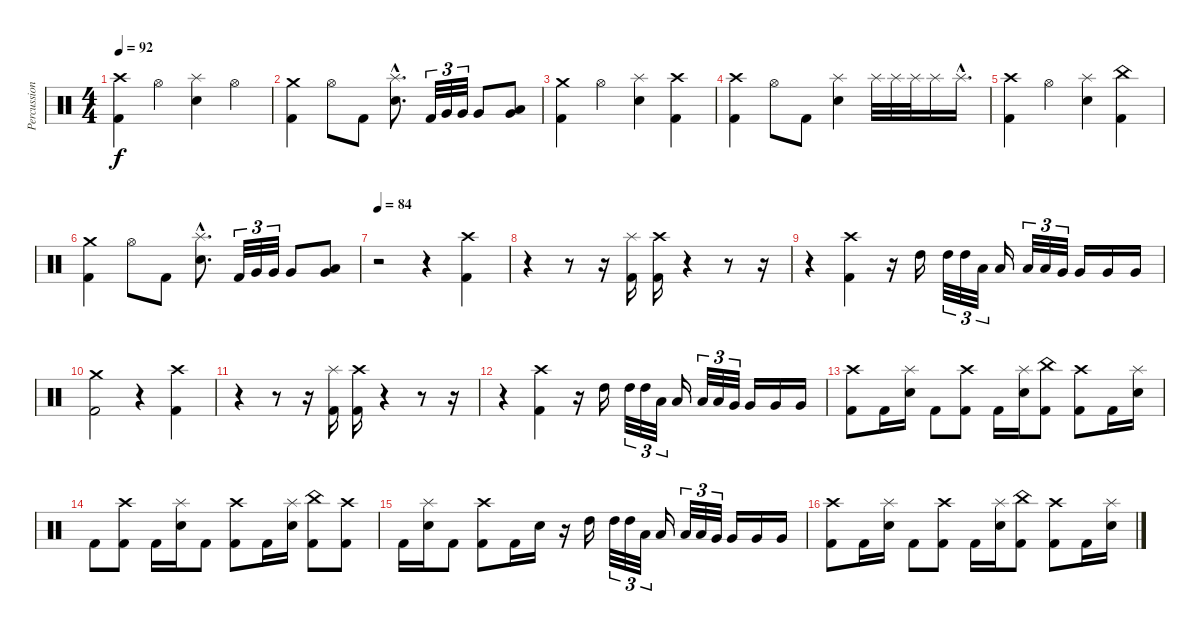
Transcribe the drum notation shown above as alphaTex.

\track ("Percussion" "Percussion") {instrument percussion}
\staff {score}
\articulation defaults
\ts (4 4)
\tempo 92
\clef neutral
\ks c
("Crash high (hit)" "Kick (hit) 2").4{dy f} "Hi-Hat (open)".4 ("Splash (hit)" "Electric Snare (hit)").4 "Hi-Hat (open)".4 |
("Crash medium (hit)" "Kick (hit) 2").4 "Hi-Hat (open)".8 "Kick (hit) 2".8 ("Splash (hit)"{hac} "Electric Snare (hit)"{hac}).8{d} "Kick (hit) 2".32{tu (3 2)} "Very Low Tom (hit)".32{tu (3 2)} "Very Low Tom (hit)".32{tu (3 2)} "Very Low Tom (hit)".8 ("Low Tom (hit)" "Very Low Tom (hit)").8 |
("Crash medium (hit)" "Kick (hit) 2").4 "Hi-Hat (open)".4 ("Splash (hit)" "Electric Snare (hit)").4 ("Kick (hit) 2" "Crash high (hit)").4 |
("Crash high (hit)" "Kick (hit) 2").4 "Hi-Hat (open)".8 "Kick (hit) 2".8 ("Splash (hit)" "Electric Snare (hit)").4 "Splash (hit)".32 "Splash (hit)".32 "Splash (hit)".32 "Splash (hit)".16 "Splash (hit)"{hac}.16{d} |
("Crash high (hit)" "Kick (hit) 2").4 "Hi-Hat (open)".4 ("Splash (hit)" "Electric Snare (hit)").4 ("China (hit)" "Kick (hit) 2").4 |
("Crash medium (hit)" "Kick (hit) 2").4 "Hi-Hat (open)".8 "Kick (hit) 2".8 ("Splash (hit)"{hac} "Electric Snare (hit)"{hac}).8{d} "Kick (hit) 2".32{tu (3 2)} "Very Low Tom (hit)".32{tu (3 2)} "Very Low Tom (hit)".32{tu (3 2)} "Very Low Tom (hit)".8 ("Low Tom (hit)" "Very Low Tom (hit)").8 |
\tempo 84
r.2 r.4 ("Kick (hit) 2" "Crash high (hit)").4 |
r.4 r.8 r.16 ("Kick (hit) 2" "Splash (hit)").16 ("Kick (hit) 2" "Crash high (hit)").16 r.4 r.8 r.16 |
r.4 ("Crash high (hit)" "Kick (hit) 2").4 r.16 "High Tom (hit)".16 "High Tom (hit)".32{tu (3 2)} "High Tom (hit)".32{tu (3 2)} "Low Tom (hit)".32{tu (3 2)} "Low Tom (hit)".16 "Low Tom (hit)".32{tu (3 2)} "Low Tom (hit)".32{tu (3 2)} "Very Low Tom (hit)".32{tu (3 2)} "Very Low Tom (hit)".16 "Very Low Tom (hit)".16 "Very Low Tom (hit)".16 |
("Crash medium (hit)" "Kick (hit) 2").2 r.4 ("Kick (hit) 2" "Crash high (hit)").4 |
r.4 r.8 r.16 ("Kick (hit) 2" "Splash (hit)").16 ("Kick (hit) 2" "Crash high (hit)").16 r.4 r.8 r.16 |
r.4 ("Crash high (hit)" "Kick (hit) 2").4 r.16 "High Tom (hit)".16 "High Tom (hit)".32{tu (3 2)} "High Tom (hit)".32{tu (3 2)} "Low Tom (hit)".32{tu (3 2)} "Low Tom (hit)".16 "Low Tom (hit)".32{tu (3 2)} "Low Tom (hit)".32{tu (3 2)} "Very Low Tom (hit)".32{tu (3 2)} "Very Low Tom (hit)".16 "Very Low Tom (hit)".16 "Very Low Tom (hit)".16 |
("Crash high (hit)" "Kick (hit) 2").8 "Kick (hit) 2".16 ("Splash (hit)" "Electric Snare (hit)").16 "Kick (hit) 2".8 ("Crash high (hit)" "Kick (hit) 2").8 "Kick (hit) 2".16 ("Splash (hit)" "Electric Snare (hit)").16 ("China (hit)" "Kick (hit) 2").8 ("Crash high (hit)" "Kick (hit) 2").8 "Kick (hit) 2".16 ("Splash (hit)" "Electric Snare (hit)").16 |
"Kick (hit) 2".8 ("Crash high (hit)" "Kick (hit) 2").8 "Kick (hit) 2".16 ("Splash (hit)" "Electric Snare (hit)").16 "Kick (hit) 2".8 ("Crash high (hit)" "Kick (hit) 2").8 "Kick (hit) 2".16 ("Splash (hit)" "Electric Snare (hit)").16 ("China (hit)" "Kick (hit) 2").8 ("Crash high (hit)" "Kick (hit) 2").8 |
"Kick (hit) 2".16 ("Splash (hit)" "Electric Snare (hit)").16 "Kick (hit) 2".8 ("Crash high (hit)" "Kick (hit) 2").8 "Kick (hit) 2".16 "Electric Snare (hit)".16 r.16 "High Tom (hit)".16 "High Tom (hit)".32{tu (3 2)} "High Tom (hit)".32{tu (3 2)} "Low Tom (hit)".32{tu (3 2)} "Low Tom (hit)".16 "Low Tom (hit)".32{tu (3 2)} "Low Tom (hit)".32{tu (3 2)} "Very Low Tom (hit)".32{tu (3 2)} "Very Low Tom (hit)".16 "Very Low Tom (hit)".16 "Very Low Tom (hit)".16 |
("Crash high (hit)" "Kick (hit) 2").8 "Kick (hit) 2".16 ("Splash (hit)" "Electric Snare (hit)").16 "Kick (hit) 2".8 ("Crash high (hit)" "Kick (hit) 2").8 "Kick (hit) 2".16 ("Splash (hit)" "Electric Snare (hit)").16 ("China (hit)" "Kick (hit) 2").8 ("Crash high (hit)" "Kick (hit) 2").8 "Kick (hit) 2".16 ("Splash (hit)" "Electric Snare (hit)").16
